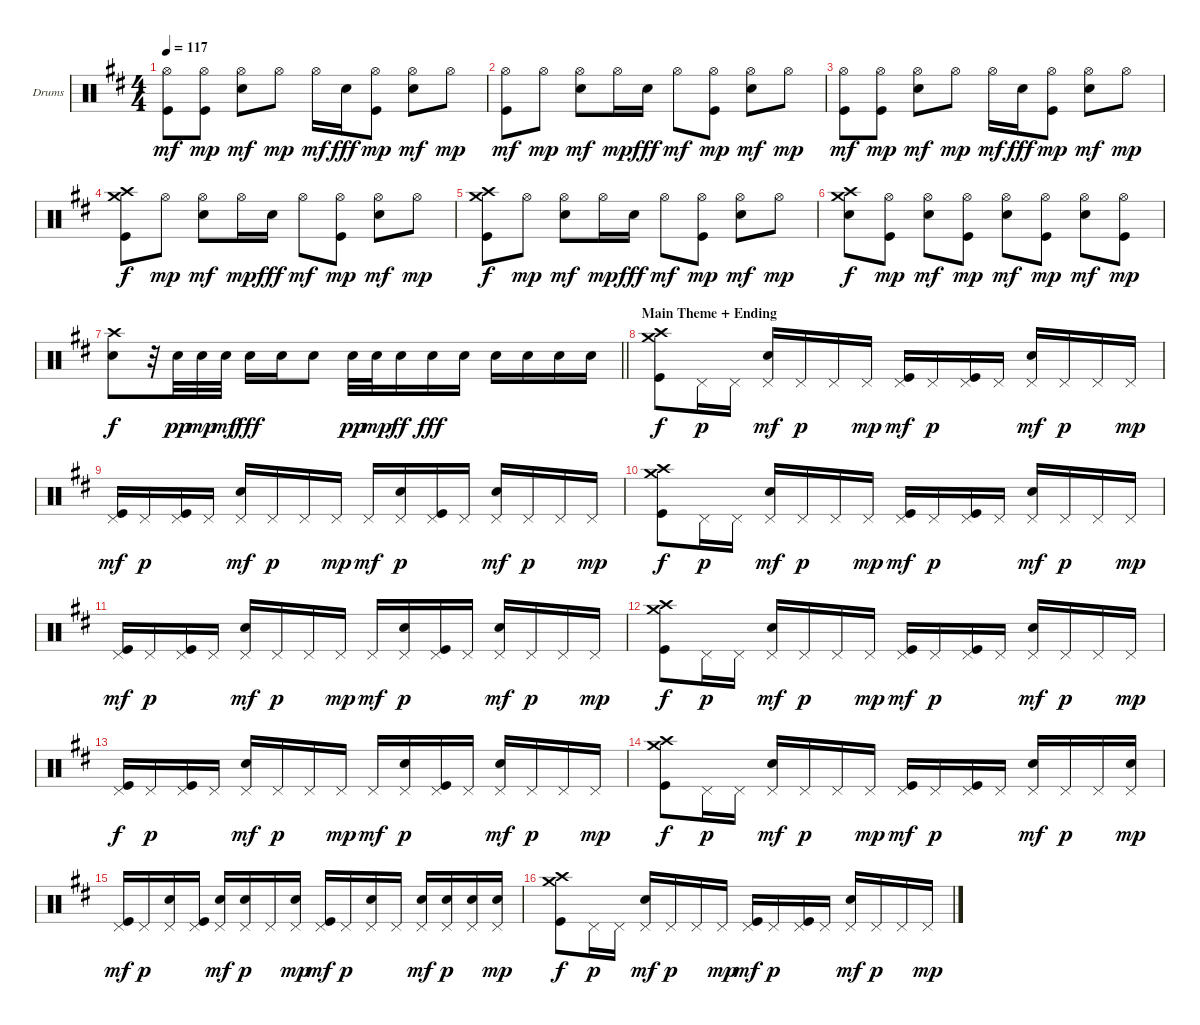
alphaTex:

\bracketExtendMode groupsimilarinstruments
\firstSystemTrackNameOrientation horizontal
\otherSystemsTrackNameOrientation horizontal
\track ("Drumkit" "Drums") {instrument percussion}
\staff {score}
\articulation defaults
\ts (4 4)
\tempo 117
\clef neutral
\ks d
("Hi-Hat (open)" "Kick (hit)").8{dy mf} ("Hi-Hat (open)" "Kick (hit)").8{dy mp} ("Hi-Hat (open)" "Snare (hit) 2").8{dy mf} "Hi-Hat (open)".8{dy mp} "Hi-Hat (open)".16{dy mf} "Snare (hit) 2".16{dy fff} ("Hi-Hat (open)" "Kick (hit)").8{dy mp} ("Hi-Hat (open)" "Snare (hit) 2").8{dy mf} "Hi-Hat (open)".8{dy mp} |
("Hi-Hat (open)" "Kick (hit)").8{dy mf} "Hi-Hat (open)".8{dy mp} ("Hi-Hat (open)" "Snare (hit) 2").8{dy mf} "Hi-Hat (open)".16{dy mp} "Snare (hit) 2".16{dy fff} "Hi-Hat (open)".8{dy mf} ("Hi-Hat (open)" "Kick (hit)").8{dy mp} ("Hi-Hat (open)" "Snare (hit) 2").8{dy mf} "Hi-Hat (open)".8{dy mp} |
("Hi-Hat (open)" "Kick (hit)").8{dy mf} ("Hi-Hat (open)" "Kick (hit)").8{dy mp} ("Hi-Hat (open)" "Snare (hit) 2").8{dy mf} "Hi-Hat (open)".8{dy mp} "Hi-Hat (open)".16{dy mf} "Snare (hit) 2".16{dy fff} ("Hi-Hat (open)" "Kick (hit)").8{dy mp} ("Hi-Hat (open)" "Snare (hit) 2").8{dy mf} "Hi-Hat (open)".8{dy mp} |
("Crash high (hit)" "Crash medium (hit)" "Kick (hit)").8{dy f} "Hi-Hat (open)".8{dy mp} ("Hi-Hat (open)" "Snare (hit) 2").8{dy mf} "Hi-Hat (open)".16{dy mp} "Snare (hit) 2".16{dy fff} "Hi-Hat (open)".8{dy mf} ("Hi-Hat (open)" "Kick (hit)").8{dy mp} ("Hi-Hat (open)" "Snare (hit) 2").8{dy mf} "Hi-Hat (open)".8{dy mp} |
("Crash high (hit)" "Kick (hit)" "Crash medium (hit)").8{dy f} "Hi-Hat (open)".8{dy mp} ("Hi-Hat (open)" "Snare (hit) 2").8{dy mf} "Hi-Hat (open)".16{dy mp} "Snare (hit) 2".16{dy fff} "Hi-Hat (open)".8{dy mf} ("Hi-Hat (open)" "Kick (hit)").8{dy mp} ("Hi-Hat (open)" "Snare (hit) 2").8{dy mf} "Hi-Hat (open)".8{dy mp} |
("Crash medium (hit)" "Crash high (hit)" "Snare (hit) 2").8{dy f} ("Hi-Hat (open)" "Kick (hit)").8{dy mp} ("Hi-Hat (open)" "Snare (hit) 2").8{dy mf} ("Hi-Hat (open)" "Kick (hit)").8{dy mp} ("Hi-Hat (open)" "Snare (hit) 2").8{dy mf} ("Hi-Hat (open)" "Kick (hit)").8{dy mp} ("Hi-Hat (open)" "Snare (hit) 2").8{dy mf} ("Hi-Hat (open)" "Kick (hit)").8{dy mp} |
\barLineRight lightlight
("Crash high (hit)" "Snare (hit) 2").8{dy f} r.32 "Snare (hit) 2".32{dy pp} "Snare (hit) 2".32{dy mp} "Snare (hit) 2".32{dy mf} "Snare (hit) 2".16{dy fff} "Snare (hit) 2".16 "Snare (hit) 2".8 "Snare (hit) 2".32{dy pp} "Snare (hit) 2".32{dy mp} "Snare (hit) 2".16{dy ff} "Snare (hit) 2".16{dy fff} "Snare (hit) 2".16 "Snare (hit) 2".16 "Snare (hit) 2".16 "Snare (hit) 2".16 "Snare (hit) 2".16 |
\section ("" "Main Theme + Ending")
("Crash high (hit)" "Crash medium (hit)" "Kick (hit)").8{dy f} "Pedal Hi-Hat (hit)".16{dy p} "Pedal Hi-Hat (hit)".16 ("Pedal Hi-Hat (hit)" "Snare (hit) 2").16{dy mf} "Pedal Hi-Hat (hit)".16{dy p} "Pedal Hi-Hat (hit)".16 "Pedal Hi-Hat (hit)".16{dy mp} ("Pedal Hi-Hat (hit)" "Kick (hit)").16{dy mf} "Pedal Hi-Hat (hit)".16{dy p} ("Pedal Hi-Hat (hit)" "Kick (hit)").16 "Pedal Hi-Hat (hit)".16 ("Pedal Hi-Hat (hit)" "Snare (hit) 2").16{dy mf} "Pedal Hi-Hat (hit)".16{dy p} "Pedal Hi-Hat (hit)".16 "Pedal Hi-Hat (hit)".16{dy mp} |
("Pedal Hi-Hat (hit)" "Kick (hit)").16{dy mf} "Pedal Hi-Hat (hit)".16{dy p} ("Pedal Hi-Hat (hit)" "Kick (hit)").16 "Pedal Hi-Hat (hit)".16 ("Pedal Hi-Hat (hit)" "Snare (hit) 2").16{dy mf} "Pedal Hi-Hat (hit)".16{dy p} "Pedal Hi-Hat (hit)".16 "Pedal Hi-Hat (hit)".16{dy mp} "Pedal Hi-Hat (hit)".16{dy mf} ("Pedal Hi-Hat (hit)" "Snare (hit) 2").16{dy p} ("Pedal Hi-Hat (hit)" "Kick (hit)").16 "Pedal Hi-Hat (hit)".16 ("Pedal Hi-Hat (hit)" "Snare (hit) 2").16{dy mf} "Pedal Hi-Hat (hit)".16{dy p} "Pedal Hi-Hat (hit)".16 "Pedal Hi-Hat (hit)".16{dy mp} |
("Crash medium (hit)" "Crash high (hit)" "Kick (hit)").8{dy f} "Pedal Hi-Hat (hit)".16{dy p} "Pedal Hi-Hat (hit)".16 ("Pedal Hi-Hat (hit)" "Snare (hit) 2").16{dy mf} "Pedal Hi-Hat (hit)".16{dy p} "Pedal Hi-Hat (hit)".16 "Pedal Hi-Hat (hit)".16{dy mp} ("Pedal Hi-Hat (hit)" "Kick (hit)").16{dy mf} "Pedal Hi-Hat (hit)".16{dy p} ("Pedal Hi-Hat (hit)" "Kick (hit)").16 "Pedal Hi-Hat (hit)".16 ("Pedal Hi-Hat (hit)" "Snare (hit) 2").16{dy mf} "Pedal Hi-Hat (hit)".16{dy p} "Pedal Hi-Hat (hit)".16 "Pedal Hi-Hat (hit)".16{dy mp} |
("Pedal Hi-Hat (hit)" "Kick (hit)").16{dy mf} "Pedal Hi-Hat (hit)".16{dy p} ("Pedal Hi-Hat (hit)" "Kick (hit)").16 "Pedal Hi-Hat (hit)".16 ("Pedal Hi-Hat (hit)" "Snare (hit) 2").16{dy mf} "Pedal Hi-Hat (hit)".16{dy p} "Pedal Hi-Hat (hit)".16 "Pedal Hi-Hat (hit)".16{dy mp} "Pedal Hi-Hat (hit)".16{dy mf} ("Pedal Hi-Hat (hit)" "Snare (hit) 2").16{dy p} ("Pedal Hi-Hat (hit)" "Kick (hit)").16 "Pedal Hi-Hat (hit)".16 ("Pedal Hi-Hat (hit)" "Snare (hit) 2").16{dy mf} "Pedal Hi-Hat (hit)".16{dy p} "Pedal Hi-Hat (hit)".16 "Pedal Hi-Hat (hit)".16{dy mp} |
("Crash high (hit)" "Crash medium (hit)" "Kick (hit)").8{dy f} "Pedal Hi-Hat (hit)".16{dy p} "Pedal Hi-Hat (hit)".16 ("Pedal Hi-Hat (hit)" "Snare (hit) 2").16{dy mf} "Pedal Hi-Hat (hit)".16{dy p} "Pedal Hi-Hat (hit)".16 "Pedal Hi-Hat (hit)".16{dy mp} ("Pedal Hi-Hat (hit)" "Kick (hit)").16{dy mf} "Pedal Hi-Hat (hit)".16{dy p} ("Pedal Hi-Hat (hit)" "Kick (hit)").16 "Pedal Hi-Hat (hit)".16 ("Pedal Hi-Hat (hit)" "Snare (hit) 2").16{dy mf} "Pedal Hi-Hat (hit)".16{dy p} "Pedal Hi-Hat (hit)".16 "Pedal Hi-Hat (hit)".16{dy mp} |
("Pedal Hi-Hat (hit)" "Kick (hit)").16{dy f} "Pedal Hi-Hat (hit)".16{dy p} ("Pedal Hi-Hat (hit)" "Kick (hit)").16 "Pedal Hi-Hat (hit)".16 ("Pedal Hi-Hat (hit)" "Snare (hit) 2").16{dy mf} "Pedal Hi-Hat (hit)".16{dy p} "Pedal Hi-Hat (hit)".16 "Pedal Hi-Hat (hit)".16{dy mp} "Pedal Hi-Hat (hit)".16{dy mf} ("Pedal Hi-Hat (hit)" "Snare (hit) 2").16{dy p} ("Pedal Hi-Hat (hit)" "Kick (hit)").16 "Pedal Hi-Hat (hit)".16 ("Pedal Hi-Hat (hit)" "Snare (hit) 2").16{dy mf} "Pedal Hi-Hat (hit)".16{dy p} "Pedal Hi-Hat (hit)".16 "Pedal Hi-Hat (hit)".16{dy mp} |
("Crash high (hit)" "Crash medium (hit)" "Kick (hit)").8{dy f} "Pedal Hi-Hat (hit)".16{dy p} "Pedal Hi-Hat (hit)".16 ("Pedal Hi-Hat (hit)" "Snare (hit) 2").16{dy mf} "Pedal Hi-Hat (hit)".16{dy p} "Pedal Hi-Hat (hit)".16 "Pedal Hi-Hat (hit)".16{dy mp} ("Pedal Hi-Hat (hit)" "Kick (hit)").16{dy mf} "Pedal Hi-Hat (hit)".16{dy p} ("Pedal Hi-Hat (hit)" "Kick (hit)").16 "Pedal Hi-Hat (hit)".16 ("Pedal Hi-Hat (hit)" "Snare (hit) 2").16{dy mf} "Pedal Hi-Hat (hit)".16{dy p} "Pedal Hi-Hat (hit)".16 ("Pedal Hi-Hat (hit)" "Snare (hit) 2").16{dy mp} |
("Pedal Hi-Hat (hit)" "Kick (hit)").16{dy mf} "Pedal Hi-Hat (hit)".16{dy p} ("Pedal Hi-Hat (hit)" "Snare (hit) 2").16 ("Pedal Hi-Hat (hit)" "Kick (hit)").16 ("Pedal Hi-Hat (hit)" "Snare (hit) 2").16{dy mf} ("Pedal Hi-Hat (hit)" "Snare (hit) 2").16{dy p} "Pedal Hi-Hat (hit)".16 ("Pedal Hi-Hat (hit)" "Snare (hit) 2").16{dy mp} ("Pedal Hi-Hat (hit)" "Kick (hit)").16{dy mf} "Pedal Hi-Hat (hit)".16{dy p} ("Pedal Hi-Hat (hit)" "Snare (hit) 2").16 "Pedal Hi-Hat (hit)".16 ("Pedal Hi-Hat (hit)" "Snare (hit) 2").16{dy mf} ("Pedal Hi-Hat (hit)" "Snare (hit) 2").16{dy p} ("Pedal Hi-Hat (hit)" "Snare (hit) 2").16 ("Pedal Hi-Hat (hit)" "Snare (hit) 2").16{dy mp} |
("Crash medium (hit)" "Crash high (hit)" "Kick (hit)").8{dy f} "Pedal Hi-Hat (hit)".16{dy p} "Pedal Hi-Hat (hit)".16 ("Pedal Hi-Hat (hit)" "Snare (hit) 2").16{dy mf} "Pedal Hi-Hat (hit)".16{dy p} "Pedal Hi-Hat (hit)".16 "Pedal Hi-Hat (hit)".16{dy mp} ("Pedal Hi-Hat (hit)" "Kick (hit)").16{dy mf} "Pedal Hi-Hat (hit)".16{dy p} ("Pedal Hi-Hat (hit)" "Kick (hit)").16 "Pedal Hi-Hat (hit)".16 ("Pedal Hi-Hat (hit)" "Snare (hit) 2").16{dy mf} "Pedal Hi-Hat (hit)".16{dy p} "Pedal Hi-Hat (hit)".16 "Pedal Hi-Hat (hit)".16{dy mp}
